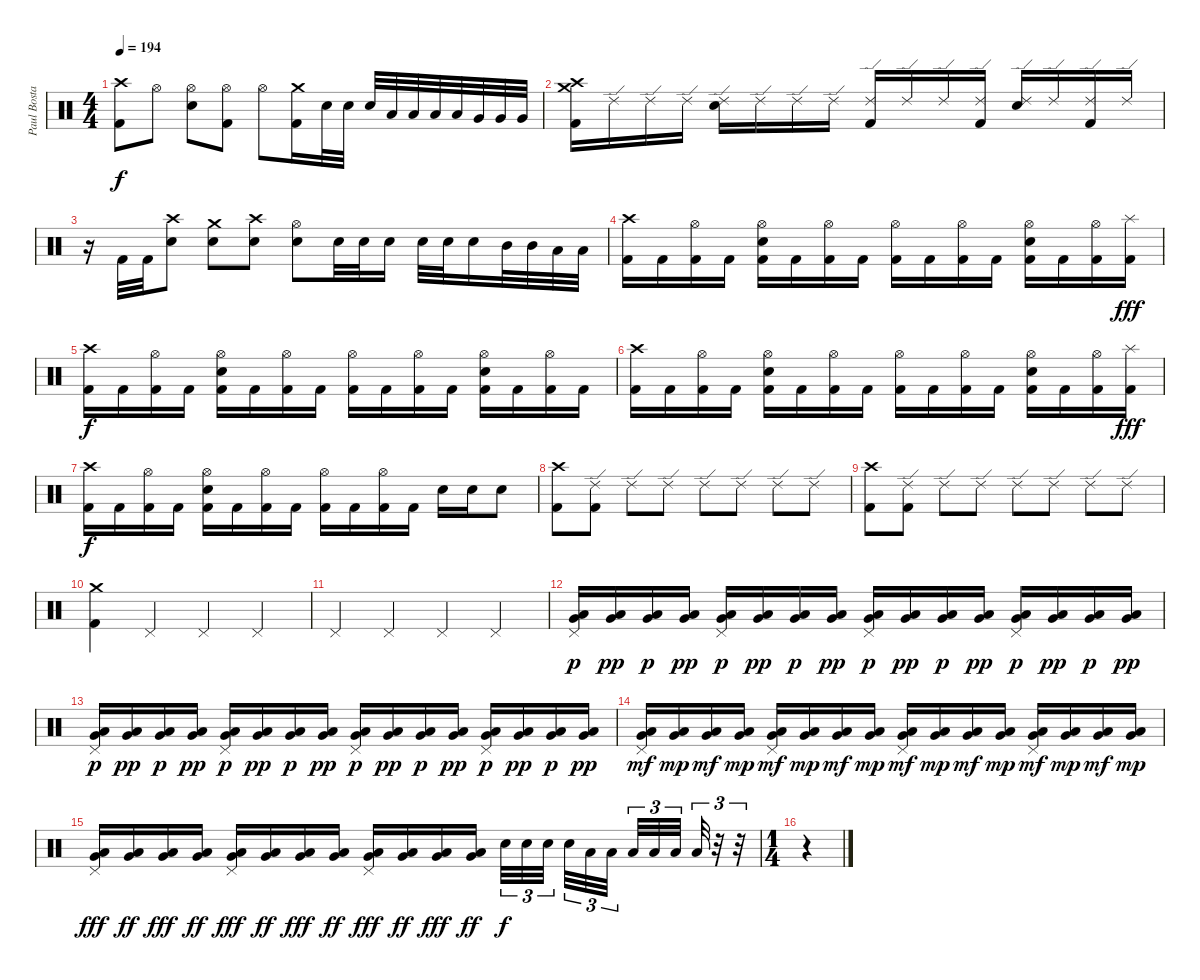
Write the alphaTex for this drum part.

\track ("Paul Bostaph" "Paul Bosta") {instrument percussion}
\staff {score}
\articulation defaults
\ts (4 4)
\tempo 194
\clef neutral
\ks c
("Crash high (hit)" "Kick (hit) 2").8{dy f} "Hi-Hat (open)".8 ("Hi-Hat (open)" "Electric Snare (hit)").8 ("Hi-Hat (open)" "Kick (hit) 2").8 "Hi-Hat (open)".8 ("Crash medium (hit)" "Kick (hit) 2").16 "Electric Snare (hit)".32 "Electric Snare (hit)".32 "Electric Snare (hit)".32 "Low Tom (hit)".32 "Low Tom (hit)".32 "Low Tom (hit)".32 "Low Tom (hit)".32 "Very Low Tom (hit)".32 "Very Low Tom (hit)".32 "Very Low Tom (hit)".32 |
("Kick (hit) 2" "Crash medium (hit)" "Crash high (hit)").16 "Ride (edge) 2".16 "Ride (edge) 2".16 "Ride (edge) 2".16 ("Ride (edge) 2" "Electric Snare (hit)").16 "Ride (edge) 2".16 "Ride (edge) 2".16 "Ride (edge) 2".16 ("Ride (edge) 2" "Kick (hit) 2").16 "Ride (edge) 2".16 "Ride (edge) 2".16 ("Ride (edge) 2" "Kick (hit) 2").16 ("Ride (edge) 2" "Electric Snare (hit)").16 "Ride (edge) 2".16 ("Ride (edge) 2" "Kick (hit) 2").16 "Ride (edge) 2".16 |
r.16 "Kick (hit) 2".32 "Kick (hit) 2".32 ("Electric Snare (hit)" "Crash high (hit)").8 ("Electric Snare (hit)" "Crash medium (hit)").8 ("Electric Snare (hit)" "Crash high (hit)").8 ("Electric Snare (hit)" "Hi-Hat (open)").8 "Electric Snare (hit)".32 "Electric Snare (hit)".32 "Electric Snare (hit)".16 "Electric Snare (hit)".32 "Electric Snare (hit)".32 "Electric Snare (hit)".16 "Mid Tom (hit)".32 "Mid Tom (hit)".32 "Low Tom (hit)".32 "Low Tom (hit)".32 |
("Crash high (hit)" "Kick (hit) 2").16 "Kick (hit) 2".16 ("Hi-Hat (open)" "Kick (hit) 2").16 "Kick (hit) 2".16 ("Hi-Hat (open)" "Kick (hit) 2" "Electric Snare (hit)").16 "Kick (hit) 2".16 ("Hi-Hat (open)" "Kick (hit) 2").16 "Kick (hit) 2".16 ("Hi-Hat (open)" "Kick (hit) 2").16 "Kick (hit) 2".16 ("Hi-Hat (open)" "Kick (hit) 2").16 "Kick (hit) 2".16 ("Hi-Hat (open)" "Kick (hit) 2" "Electric Snare (hit)").16 "Kick (hit) 2".16 ("Hi-Hat (open)" "Kick (hit) 2").16 ("Splash (hit)" "Kick (hit) 2").16{dy fff} |
("Crash high (hit)" "Kick (hit) 2").16{dy f} "Kick (hit) 2".16 ("Hi-Hat (open)" "Kick (hit) 2").16 "Kick (hit) 2".16 ("Hi-Hat (open)" "Kick (hit) 2" "Electric Snare (hit)").16 "Kick (hit) 2".16 ("Hi-Hat (open)" "Kick (hit) 2").16 "Kick (hit) 2".16 ("Hi-Hat (open)" "Kick (hit) 2").16 "Kick (hit) 2".16 ("Hi-Hat (open)" "Kick (hit) 2").16 "Kick (hit) 2".16 ("Hi-Hat (open)" "Kick (hit) 2" "Electric Snare (hit)").16 "Kick (hit) 2".16 ("Hi-Hat (open)" "Kick (hit) 2").16 "Kick (hit) 2".16 |
("Crash high (hit)" "Kick (hit) 2").16 "Kick (hit) 2".16 ("Hi-Hat (open)" "Kick (hit) 2").16 "Kick (hit) 2".16 ("Hi-Hat (open)" "Kick (hit) 2" "Electric Snare (hit)").16 "Kick (hit) 2".16 ("Hi-Hat (open)" "Kick (hit) 2").16 "Kick (hit) 2".16 ("Hi-Hat (open)" "Kick (hit) 2").16 "Kick (hit) 2".16 ("Hi-Hat (open)" "Kick (hit) 2").16 "Kick (hit) 2".16 ("Hi-Hat (open)" "Kick (hit) 2" "Electric Snare (hit)").16 "Kick (hit) 2".16 ("Hi-Hat (open)" "Kick (hit) 2").16 ("Splash (hit)" "Kick (hit) 2").16{dy fff} |
("Crash high (hit)" "Kick (hit) 2").16{dy f} "Kick (hit) 2".16 ("Hi-Hat (open)" "Kick (hit) 2").16 "Kick (hit) 2".16 ("Hi-Hat (open)" "Kick (hit) 2" "Electric Snare (hit)").16 "Kick (hit) 2".16 ("Hi-Hat (open)" "Kick (hit) 2").16 "Kick (hit) 2".16 ("Hi-Hat (open)" "Kick (hit) 2").16 "Kick (hit) 2".16 ("Hi-Hat (open)" "Kick (hit) 2").16 "Kick (hit) 2".16 "Electric Snare (hit)".16 "Electric Snare (hit)".16 "Electric Snare (hit)".8 |
("Crash high (hit)" "Kick (hit) 2").8 ("Ride (edge) 2" "Kick (hit) 2").8 "Ride (edge) 2".8 "Ride (edge) 2".8 "Ride (edge) 2".8 "Ride (edge) 2".8 "Ride (edge) 2".8 "Ride (edge) 2".8 |
("Crash high (hit)" "Kick (hit) 2").8 ("Ride (edge) 2" "Kick (hit) 2").8 "Ride (edge) 2".8 "Ride (edge) 2".8 "Ride (edge) 2".8 "Ride (edge) 2".8 "Ride (edge) 2".8 "Ride (edge) 2".8 |
("Crash medium (hit)" "Kick (hit) 2").4 "Pedal Hi-Hat (hit)".4 "Pedal Hi-Hat (hit)".4 "Pedal Hi-Hat (hit)".4 |
"Pedal Hi-Hat (hit)".4 "Pedal Hi-Hat (hit)".4 "Pedal Hi-Hat (hit)".4 "Pedal Hi-Hat (hit)".4 |
("Pedal Hi-Hat (hit)" "Low Floor Tom (hit)" "Very Low Tom (hit)").16{dy p} ("Low Floor Tom (hit)" "Very Low Tom (hit)").16{dy pp} ("Low Floor Tom (hit)" "Very Low Tom (hit)").16{dy p} ("Low Floor Tom (hit)" "Very Low Tom (hit)").16{dy pp} ("Pedal Hi-Hat (hit)" "Low Floor Tom (hit)" "Very Low Tom (hit)").16{dy p} ("Low Floor Tom (hit)" "Very Low Tom (hit)").16{dy pp} ("Low Floor Tom (hit)" "Very Low Tom (hit)").16{dy p} ("Low Floor Tom (hit)" "Very Low Tom (hit)").16{dy pp} ("Pedal Hi-Hat (hit)" "Low Floor Tom (hit)" "Very Low Tom (hit)").16{dy p} ("Low Floor Tom (hit)" "Very Low Tom (hit)").16{dy pp} ("Low Floor Tom (hit)" "Very Low Tom (hit)").16{dy p} ("Low Floor Tom (hit)" "Very Low Tom (hit)").16{dy pp} ("Pedal Hi-Hat (hit)" "Low Floor Tom (hit)" "Very Low Tom (hit)").16{dy p} ("Low Floor Tom (hit)" "Very Low Tom (hit)").16{dy pp} ("Low Floor Tom (hit)" "Very Low Tom (hit)").16{dy p} ("Low Floor Tom (hit)" "Very Low Tom (hit)").16{dy pp} |
("Pedal Hi-Hat (hit)" "Low Floor Tom (hit)" "Very Low Tom (hit)").16{dy p} ("Low Floor Tom (hit)" "Very Low Tom (hit)").16{dy pp} ("Low Floor Tom (hit)" "Very Low Tom (hit)").16{dy p} ("Low Floor Tom (hit)" "Very Low Tom (hit)").16{dy pp} ("Pedal Hi-Hat (hit)" "Low Floor Tom (hit)" "Very Low Tom (hit)").16{dy p} ("Low Floor Tom (hit)" "Very Low Tom (hit)").16{dy pp} ("Low Floor Tom (hit)" "Very Low Tom (hit)").16{dy p} ("Low Floor Tom (hit)" "Very Low Tom (hit)").16{dy pp} ("Pedal Hi-Hat (hit)" "Low Floor Tom (hit)" "Very Low Tom (hit)").16{dy p} ("Low Floor Tom (hit)" "Very Low Tom (hit)").16{dy pp} ("Low Floor Tom (hit)" "Very Low Tom (hit)").16{dy p} ("Low Floor Tom (hit)" "Very Low Tom (hit)").16{dy pp} ("Pedal Hi-Hat (hit)" "Low Floor Tom (hit)" "Very Low Tom (hit)").16{dy p} ("Low Floor Tom (hit)" "Very Low Tom (hit)").16{dy pp} ("Low Floor Tom (hit)" "Very Low Tom (hit)").16{dy p} ("Low Floor Tom (hit)" "Very Low Tom (hit)").16{dy pp} |
("Pedal Hi-Hat (hit)" "Low Floor Tom (hit)" "Very Low Tom (hit)").16{dy mf} ("Low Floor Tom (hit)" "Very Low Tom (hit)").16{dy mp} ("Low Floor Tom (hit)" "Very Low Tom (hit)").16{dy mf} ("Low Floor Tom (hit)" "Very Low Tom (hit)").16{dy mp} ("Pedal Hi-Hat (hit)" "Low Floor Tom (hit)" "Very Low Tom (hit)").16{dy mf} ("Low Floor Tom (hit)" "Very Low Tom (hit)").16{dy mp} ("Low Floor Tom (hit)" "Very Low Tom (hit)").16{dy mf} ("Low Floor Tom (hit)" "Very Low Tom (hit)").16{dy mp} ("Pedal Hi-Hat (hit)" "Low Floor Tom (hit)" "Very Low Tom (hit)").16{dy mf} ("Low Floor Tom (hit)" "Very Low Tom (hit)").16{dy mp} ("Low Floor Tom (hit)" "Very Low Tom (hit)").16{dy mf} ("Low Floor Tom (hit)" "Very Low Tom (hit)").16{dy mp} ("Pedal Hi-Hat (hit)" "Low Floor Tom (hit)" "Very Low Tom (hit)").16{dy mf} ("Low Floor Tom (hit)" "Very Low Tom (hit)").16{dy mp} ("Low Floor Tom (hit)" "Very Low Tom (hit)").16{dy mf} ("Low Floor Tom (hit)" "Very Low Tom (hit)").16{dy mp} |
("Pedal Hi-Hat (hit)" "Low Floor Tom (hit)" "Very Low Tom (hit)").16{dy fff} ("Low Floor Tom (hit)" "Very Low Tom (hit)").16{dy ff} ("Low Floor Tom (hit)" "Very Low Tom (hit)").16{dy fff} ("Low Floor Tom (hit)" "Very Low Tom (hit)").16{dy ff} ("Pedal Hi-Hat (hit)" "Low Floor Tom (hit)" "Very Low Tom (hit)").16{dy fff} ("Low Floor Tom (hit)" "Very Low Tom (hit)").16{dy ff} ("Low Floor Tom (hit)" "Very Low Tom (hit)").16{dy fff} ("Low Floor Tom (hit)" "Very Low Tom (hit)").16{dy ff} ("Pedal Hi-Hat (hit)" "Low Floor Tom (hit)" "Very Low Tom (hit)").16{dy fff} ("Low Floor Tom (hit)" "Very Low Tom (hit)").16{dy ff} ("Low Floor Tom (hit)" "Very Low Tom (hit)").16{dy fff} ("Low Floor Tom (hit)" "Very Low Tom (hit)").16{dy ff} "Electric Snare (hit)".32{tu (3 2) dy f} "Electric Snare (hit)".32{tu (3 2)} "Electric Snare (hit)".32{tu (3 2)} "Electric Snare (hit)".32{tu (3 2)} "Low Tom (hit)".32{tu (3 2)} "Low Tom (hit)".32{tu (3 2)} "Low Tom (hit)".32{tu (3 2)} "Low Tom (hit)".32{tu (3 2)} "Low Tom (hit)".32{tu (3 2)} "Low Tom (hit)".32{tu (3 2)} r.32{tu (3 2)} r.32{tu (3 2)} |
\ts (1 4)
r.4
